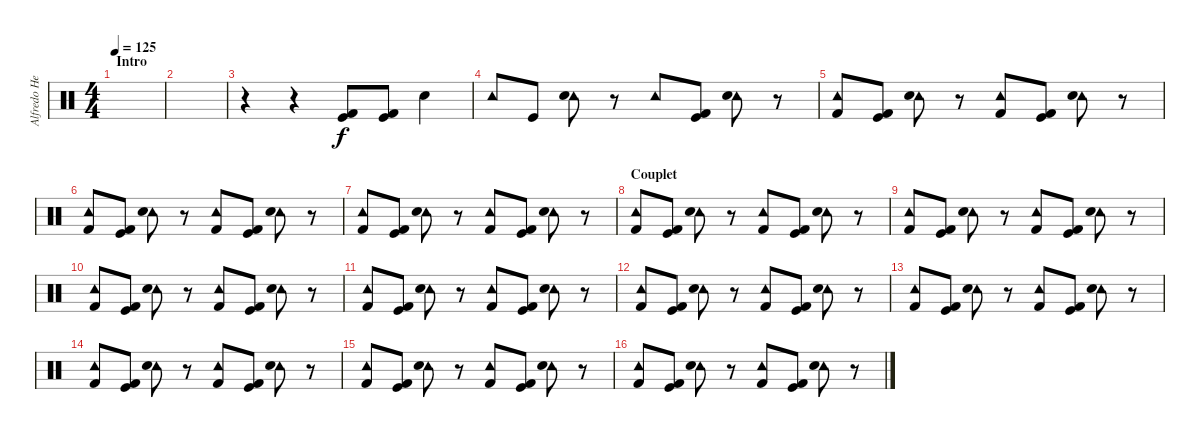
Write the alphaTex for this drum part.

\track ("Alfredo Hernandez (Drums)" "Alfredo He") {instrument percussion}
\staff {score}
\articulation defaults
\ts (4 4)
\section ("" "Intro")
\tempo 125
\clef neutral
\ks c
|
|
r.4 r.4 ("Kick (hit)" "Kick (hit) 2").8 ("Kick (hit)" "Kick (hit) 2").8 "Electric Snare (hit)".4 |
"Tambourine (hit)".8 "Kick (hit)".8 ("Tambourine (hit)" "Electric Snare (hit)").8 r.8 "Tambourine (hit)".8 ("Kick (hit)" "Kick (hit) 2").8 ("Tambourine (hit)" "Electric Snare (hit)").8 r.8 |
("Tambourine (hit)" "Kick (hit) 2").8 ("Kick (hit)" "Kick (hit) 2").8 ("Tambourine (hit)" "Electric Snare (hit)").8 r.8 ("Tambourine (hit)" "Kick (hit) 2").8 ("Kick (hit)" "Kick (hit) 2").8 ("Tambourine (hit)" "Electric Snare (hit)").8 r.8 |
("Tambourine (hit)" "Kick (hit) 2").8 ("Kick (hit)" "Kick (hit) 2").8 ("Tambourine (hit)" "Electric Snare (hit)").8 r.8 ("Tambourine (hit)" "Kick (hit) 2").8 ("Kick (hit)" "Kick (hit) 2").8 ("Tambourine (hit)" "Electric Snare (hit)").8 r.8 |
("Tambourine (hit)" "Kick (hit) 2").8 ("Kick (hit)" "Kick (hit) 2").8 ("Tambourine (hit)" "Electric Snare (hit)").8 r.8 ("Tambourine (hit)" "Kick (hit) 2").8 ("Kick (hit)" "Kick (hit) 2").8 ("Tambourine (hit)" "Electric Snare (hit)").8 r.8 |
\section ("" "Couplet")
("Tambourine (hit)" "Kick (hit) 2").8 ("Kick (hit)" "Kick (hit) 2").8 ("Tambourine (hit)" "Electric Snare (hit)").8 r.8 ("Tambourine (hit)" "Kick (hit) 2").8 ("Kick (hit)" "Kick (hit) 2").8 ("Tambourine (hit)" "Electric Snare (hit)").8 r.8 |
("Tambourine (hit)" "Kick (hit) 2").8 ("Kick (hit)" "Kick (hit) 2").8 ("Tambourine (hit)" "Electric Snare (hit)").8 r.8 ("Tambourine (hit)" "Kick (hit) 2").8 ("Kick (hit)" "Kick (hit) 2").8 ("Tambourine (hit)" "Electric Snare (hit)").8 r.8 |
("Tambourine (hit)" "Kick (hit) 2").8 ("Kick (hit)" "Kick (hit) 2").8 ("Tambourine (hit)" "Electric Snare (hit)").8 r.8 ("Tambourine (hit)" "Kick (hit) 2").8 ("Kick (hit)" "Kick (hit) 2").8 ("Tambourine (hit)" "Electric Snare (hit)").8 r.8 |
("Tambourine (hit)" "Kick (hit) 2").8 ("Kick (hit)" "Kick (hit) 2").8 ("Tambourine (hit)" "Electric Snare (hit)").8 r.8 ("Tambourine (hit)" "Kick (hit) 2").8 ("Kick (hit)" "Kick (hit) 2").8 ("Tambourine (hit)" "Electric Snare (hit)").8 r.8 |
("Tambourine (hit)" "Kick (hit) 2").8 ("Kick (hit)" "Kick (hit) 2").8 ("Tambourine (hit)" "Electric Snare (hit)").8 r.8 ("Tambourine (hit)" "Kick (hit) 2").8 ("Kick (hit)" "Kick (hit) 2").8 ("Tambourine (hit)" "Electric Snare (hit)").8 r.8 |
("Tambourine (hit)" "Kick (hit) 2").8 ("Kick (hit)" "Kick (hit) 2").8 ("Tambourine (hit)" "Electric Snare (hit)").8 r.8 ("Tambourine (hit)" "Kick (hit) 2").8 ("Kick (hit)" "Kick (hit) 2").8 ("Tambourine (hit)" "Electric Snare (hit)").8 r.8 |
("Tambourine (hit)" "Kick (hit) 2").8 ("Kick (hit)" "Kick (hit) 2").8 ("Tambourine (hit)" "Electric Snare (hit)").8 r.8 ("Tambourine (hit)" "Kick (hit) 2").8 ("Kick (hit)" "Kick (hit) 2").8 ("Tambourine (hit)" "Electric Snare (hit)").8 r.8 |
("Tambourine (hit)" "Kick (hit) 2").8 ("Kick (hit)" "Kick (hit) 2").8 ("Tambourine (hit)" "Electric Snare (hit)").8 r.8 ("Tambourine (hit)" "Kick (hit) 2").8 ("Kick (hit)" "Kick (hit) 2").8 ("Tambourine (hit)" "Electric Snare (hit)").8 r.8 |
("Tambourine (hit)" "Kick (hit) 2").8 ("Kick (hit)" "Kick (hit) 2").8 ("Tambourine (hit)" "Electric Snare (hit)").8 r.8 ("Tambourine (hit)" "Kick (hit) 2").8 ("Kick (hit)" "Kick (hit) 2").8 ("Tambourine (hit)" "Electric Snare (hit)").8 r.8
